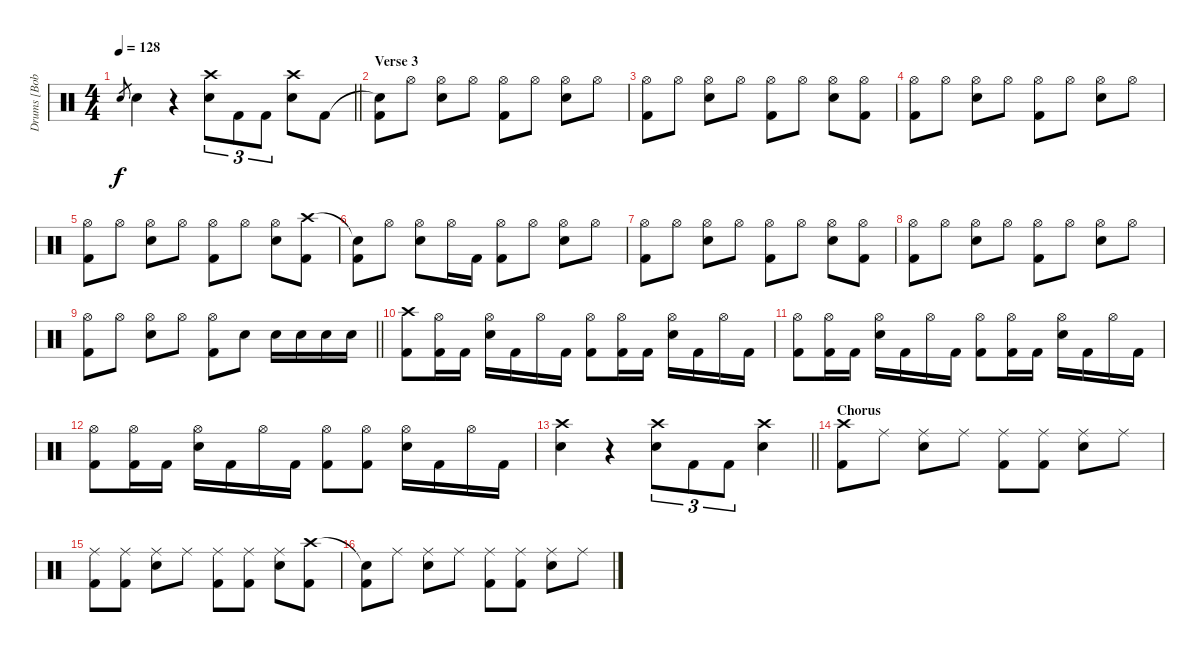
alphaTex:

\track ("Drums [Bobby Blotzer]" "Drums [Bob") {instrument percussion}
\staff {score}
\articulation defaults
\ts (4 4)
\tempo 128
\clef neutral
\barLineRight lightlight
\ks c "Electric Snare (hit)".8{gr dy f} "Electric Snare (hit)".4
r.4 ("Crash high (hit)" "Electric Snare (hit)").8{tu (3 2)} "Kick (hit) 2".8{tu (3 2)} "Kick (hit) 2".8{tu (3 2)} ("Crash high (hit)" "Electric Snare (hit)").8 "Kick (hit) 2".8 |
\section ("" "Verse 3")
("Snare (hit)"{t} "Kick (hit) 2").8 "Hi-Hat (open)".8 ("Hi-Hat (open)" "Electric Snare (hit)").8 "Hi-Hat (open)".8 ("Hi-Hat (open)" "Kick (hit) 2").8 "Hi-Hat (open)".8 ("Hi-Hat (open)" "Electric Snare (hit)").8 "Hi-Hat (open)".8 |
("Hi-Hat (open)" "Kick (hit) 2").8 "Hi-Hat (open)".8 ("Hi-Hat (open)" "Electric Snare (hit)").8 "Hi-Hat (open)".8 ("Hi-Hat (open)" "Kick (hit) 2").8 "Hi-Hat (open)".8 ("Hi-Hat (open)" "Electric Snare (hit)").8 ("Hi-Hat (open)" "Kick (hit) 2").8 |
("Hi-Hat (open)" "Kick (hit) 2").8 "Hi-Hat (open)".8 ("Hi-Hat (open)" "Electric Snare (hit)").8 "Hi-Hat (open)".8 ("Hi-Hat (open)" "Kick (hit) 2").8 "Hi-Hat (open)".8 ("Hi-Hat (open)" "Electric Snare (hit)").8 "Hi-Hat (open)".8 |
("Hi-Hat (open)" "Kick (hit) 2").8 "Hi-Hat (open)".8 ("Hi-Hat (open)" "Electric Snare (hit)").8 "Hi-Hat (open)".8 ("Hi-Hat (open)" "Kick (hit) 2").8 "Hi-Hat (open)".8 ("Hi-Hat (open)" "Electric Snare (hit)").8 ("Crash high (hit)" "Kick (hit) 2").8 |
("Snare (hit)"{t} "Kick (hit) 2").8 "Hi-Hat (open)".8 ("Hi-Hat (open)" "Electric Snare (hit)").8 "Hi-Hat (open)".16 "Kick (hit) 2".16 ("Hi-Hat (open)" "Kick (hit) 2").8 "Hi-Hat (open)".8 ("Hi-Hat (open)" "Electric Snare (hit)").8 "Hi-Hat (open)".8 |
("Hi-Hat (open)" "Kick (hit) 2").8 "Hi-Hat (open)".8 ("Hi-Hat (open)" "Electric Snare (hit)").8 "Hi-Hat (open)".8 ("Hi-Hat (open)" "Kick (hit) 2").8 "Hi-Hat (open)".8 ("Hi-Hat (open)" "Electric Snare (hit)").8 ("Hi-Hat (open)" "Kick (hit) 2").8 |
("Hi-Hat (open)" "Kick (hit) 2").8 "Hi-Hat (open)".8 ("Hi-Hat (open)" "Electric Snare (hit)").8 "Hi-Hat (open)".8 ("Hi-Hat (open)" "Kick (hit) 2").8 "Hi-Hat (open)".8 ("Hi-Hat (open)" "Electric Snare (hit)").8 "Hi-Hat (open)".8 |
\barLineRight lightlight
("Hi-Hat (open)" "Kick (hit) 2").8 "Hi-Hat (open)".8 ("Hi-Hat (open)" "Electric Snare (hit)").8 "Hi-Hat (open)".8 ("Hi-Hat (open)" "Kick (hit) 2").8 "Electric Snare (hit)".8 "Electric Snare (hit)".16 "Electric Snare (hit)".16 "Electric Snare (hit)".16 "Electric Snare (hit)".16 |
("Crash high (hit)" "Kick (hit) 2").8 ("Hi-Hat (open)" "Kick (hit) 2").16 "Kick (hit) 2".16 ("Hi-Hat (open)" "Electric Snare (hit)").16 "Kick (hit) 2".16 "Hi-Hat (open)".16 "Kick (hit) 2".16 ("Hi-Hat (open)" "Kick (hit) 2").8 ("Hi-Hat (open)" "Kick (hit) 2").16 "Kick (hit) 2".16 ("Hi-Hat (open)" "Electric Snare (hit)").16 "Kick (hit) 2".16 "Hi-Hat (open)".16 "Kick (hit) 2".16 |
("Hi-Hat (open)" "Kick (hit) 2").8 ("Hi-Hat (open)" "Kick (hit) 2").16 "Kick (hit) 2".16 ("Hi-Hat (open)" "Electric Snare (hit)").16 "Kick (hit) 2".16 "Hi-Hat (open)".16 "Kick (hit) 2".16 ("Hi-Hat (open)" "Kick (hit) 2").8 ("Hi-Hat (open)" "Kick (hit) 2").16 "Kick (hit) 2".16 ("Hi-Hat (open)" "Electric Snare (hit)").16 "Kick (hit) 2".16 "Hi-Hat (open)".16 "Kick (hit) 2".16 |
("Hi-Hat (open)" "Kick (hit) 2").8 ("Hi-Hat (open)" "Kick (hit) 2").16 "Kick (hit) 2".16 ("Hi-Hat (open)" "Electric Snare (hit)").16 "Kick (hit) 2".16 "Hi-Hat (open)".16 "Kick (hit) 2".16 ("Hi-Hat (open)" "Kick (hit) 2").8 ("Hi-Hat (open)" "Kick (hit) 2").8 ("Hi-Hat (open)" "Electric Snare (hit)").16 "Kick (hit) 2".16 "Hi-Hat (open)".16 "Kick (hit) 2".16 |
\barLineRight lightlight
("Crash high (hit)" "Electric Snare (hit)").4 r.4 ("Crash high (hit)" "Electric Snare (hit)").8{tu (3 2)} "Kick (hit) 2".8{tu (3 2)} "Kick (hit) 2".8{tu (3 2)} ("Crash high (hit)" "Electric Snare (hit)").4 |
\section ("" "Chorus")
("Crash high (hit)" "Kick (hit) 2").8 "Ride (middle)".8 ("Ride (middle)" "Electric Snare (hit)").8 "Ride (middle)".8 ("Ride (middle)" "Kick (hit) 2").8 ("Ride (middle)" "Kick (hit) 2").8 ("Ride (middle)" "Electric Snare (hit)").8 "Ride (middle)".8 |
("Ride (middle)" "Kick (hit) 2").8 ("Ride (middle)" "Kick (hit) 2").8 ("Ride (middle)" "Electric Snare (hit)").8 "Ride (middle)".8 ("Ride (middle)" "Kick (hit) 2").8 ("Ride (middle)" "Kick (hit) 2").8 ("Ride (middle)" "Electric Snare (hit)").8 ("Crash high (hit)" "Kick (hit) 2").8 |
("Snare (hit)"{t} "Kick (hit) 2").8 "Ride (middle)".8 ("Ride (middle)" "Electric Snare (hit)").8 "Ride (middle)".8 ("Ride (middle)" "Kick (hit) 2").8 ("Ride (middle)" "Kick (hit) 2").8 ("Ride (middle)" "Electric Snare (hit)").8 "Ride (middle)".8
